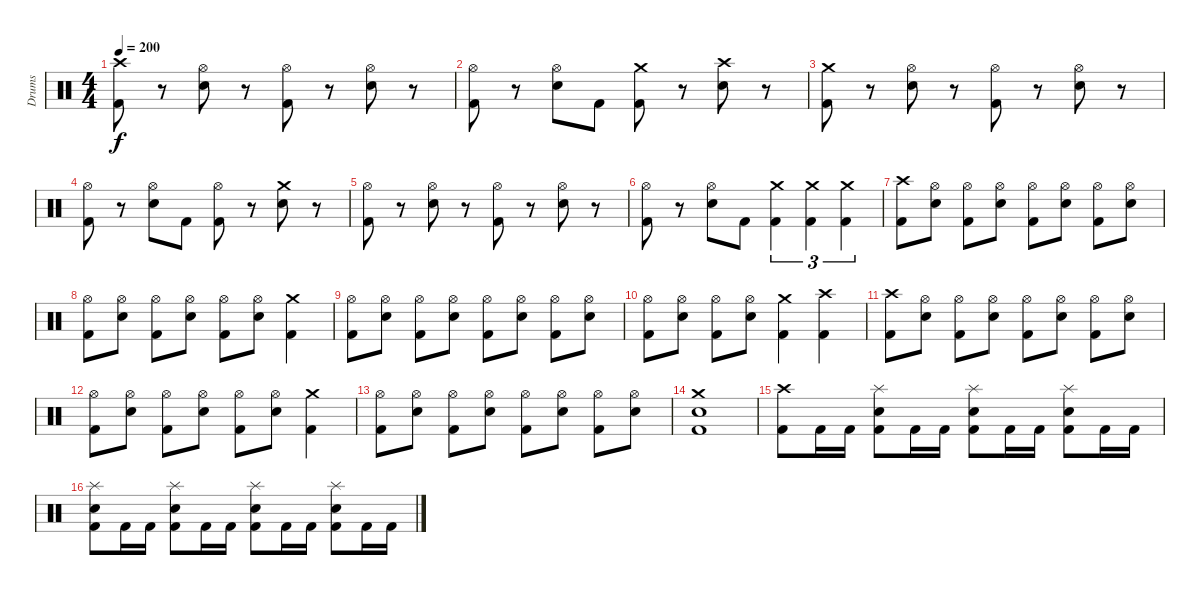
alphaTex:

\track ("Drums" "Drums") {instrument percussion}
\staff {score}
\articulation defaults
\ts (4 4)
\tempo 200
\clef neutral
\ks c
("Crash high (hit)" "Kick (hit) 2").8{dy f} r.8 ("Hi-Hat (open)" "Electric Snare (hit)").8 r.8 ("Hi-Hat (open)" "Kick (hit) 2").8 r.8 ("Hi-Hat (open)" "Electric Snare (hit)").8 r.8 |
("Hi-Hat (open)" "Kick (hit) 2").8 r.8 ("Hi-Hat (open)" "Electric Snare (hit)").8 "Kick (hit) 2".8 ("Crash medium (hit)" "Kick (hit) 2").8 r.8 ("Crash high (hit)" "Electric Snare (hit)").8 r.8 |
("Crash medium (hit)" "Kick (hit) 2").8 r.8 ("Hi-Hat (open)" "Electric Snare (hit)").8 r.8 ("Hi-Hat (open)" "Kick (hit) 2").8 r.8 ("Hi-Hat (open)" "Electric Snare (hit)").8 r.8 |
("Hi-Hat (open)" "Kick (hit) 2").8 r.8 ("Hi-Hat (open)" "Electric Snare (hit)").8 "Kick (hit) 2".8 ("Hi-Hat (open)" "Kick (hit) 2").8 r.8 ("Crash medium (hit)" "Electric Snare (hit)").8 r.8 |
("Hi-Hat (open)" "Kick (hit) 2").8 r.8 ("Hi-Hat (open)" "Electric Snare (hit)").8 r.8 ("Hi-Hat (open)" "Kick (hit) 2").8 r.8 ("Hi-Hat (open)" "Electric Snare (hit)").8 r.8 |
("Hi-Hat (open)" "Kick (hit) 2").8 r.8 ("Hi-Hat (open)" "Electric Snare (hit)").8 "Kick (hit) 2".8 ("Crash medium (hit)" "Kick (hit) 2").4{tu (3 2)} ("Crash medium (hit)" "Kick (hit) 2").4{tu (3 2)} ("Crash medium (hit)" "Kick (hit) 2").4{tu (3 2)} |
("Crash high (hit)" "Kick (hit) 2").8 ("Hi-Hat (open)" "Electric Snare (hit)").8 ("Hi-Hat (open)" "Kick (hit) 2").8 ("Hi-Hat (open)" "Electric Snare (hit)").8 ("Hi-Hat (open)" "Kick (hit) 2").8 ("Hi-Hat (open)" "Electric Snare (hit)").8 ("Hi-Hat (open)" "Kick (hit) 2").8 ("Hi-Hat (open)" "Electric Snare (hit)").8 |
("Hi-Hat (open)" "Kick (hit) 2").8 ("Hi-Hat (open)" "Electric Snare (hit)").8 ("Hi-Hat (open)" "Kick (hit) 2").8 ("Hi-Hat (open)" "Electric Snare (hit)").8 ("Hi-Hat (open)" "Kick (hit) 2").8 ("Hi-Hat (open)" "Electric Snare (hit)").8 ("Crash medium (hit)" "Kick (hit) 2").4 |
("Hi-Hat (open)" "Kick (hit) 2").8 ("Hi-Hat (open)" "Electric Snare (hit)").8 ("Hi-Hat (open)" "Kick (hit) 2").8 ("Hi-Hat (open)" "Electric Snare (hit)").8 ("Hi-Hat (open)" "Kick (hit) 2").8 ("Hi-Hat (open)" "Electric Snare (hit)").8 ("Hi-Hat (open)" "Kick (hit) 2").8 ("Hi-Hat (open)" "Electric Snare (hit)").8 |
("Hi-Hat (open)" "Kick (hit) 2").8 ("Hi-Hat (open)" "Electric Snare (hit)").8 ("Hi-Hat (open)" "Kick (hit) 2").8 ("Hi-Hat (open)" "Electric Snare (hit)").8 ("Crash medium (hit)" "Kick (hit) 2").4 ("Crash high (hit)" "Kick (hit) 2").4 |
("Crash high (hit)" "Kick (hit) 2").8 ("Hi-Hat (open)" "Electric Snare (hit)").8 ("Hi-Hat (open)" "Kick (hit) 2").8 ("Hi-Hat (open)" "Electric Snare (hit)").8 ("Hi-Hat (open)" "Kick (hit) 2").8 ("Hi-Hat (open)" "Electric Snare (hit)").8 ("Hi-Hat (open)" "Kick (hit) 2").8 ("Hi-Hat (open)" "Electric Snare (hit)").8 |
("Hi-Hat (open)" "Kick (hit) 2").8 ("Hi-Hat (open)" "Electric Snare (hit)").8 ("Hi-Hat (open)" "Kick (hit) 2").8 ("Hi-Hat (open)" "Electric Snare (hit)").8 ("Hi-Hat (open)" "Kick (hit) 2").8 ("Hi-Hat (open)" "Electric Snare (hit)").8 ("Crash medium (hit)" "Kick (hit) 2").4 |
("Hi-Hat (open)" "Kick (hit) 2").8 ("Hi-Hat (open)" "Electric Snare (hit)").8 ("Hi-Hat (open)" "Kick (hit) 2").8 ("Hi-Hat (open)" "Electric Snare (hit)").8 ("Hi-Hat (open)" "Kick (hit) 2").8 ("Hi-Hat (open)" "Electric Snare (hit)").8 ("Hi-Hat (open)" "Kick (hit) 2").8 ("Hi-Hat (open)" "Electric Snare (hit)").8 |
("Crash medium (hit)" "Electric Snare (hit)" "Kick (hit) 2").1 |
("Crash high (hit)" "Kick (hit) 2").8 "Kick (hit) 2".16 "Kick (hit) 2".16 ("Splash (hit)" "Electric Snare (hit)" "Kick (hit) 2").8 "Kick (hit) 2".16 "Kick (hit) 2".16 ("Splash (hit)" "Electric Snare (hit)" "Kick (hit) 2").8 "Kick (hit) 2".16 "Kick (hit) 2".16 ("Splash (hit)" "Electric Snare (hit)" "Kick (hit) 2").8 "Kick (hit) 2".16 "Kick (hit) 2".16 |
("Splash (hit)" "Electric Snare (hit)" "Kick (hit) 2").8 "Kick (hit) 2".16 "Kick (hit) 2".16 ("Splash (hit)" "Electric Snare (hit)" "Kick (hit) 2").8 "Kick (hit) 2".16 "Kick (hit) 2".16 ("Splash (hit)" "Electric Snare (hit)" "Kick (hit) 2").8 "Kick (hit) 2".16 "Kick (hit) 2".16 ("Splash (hit)" "Electric Snare (hit)" "Kick (hit) 2").8 "Kick (hit) 2".16 "Kick (hit) 2".16
